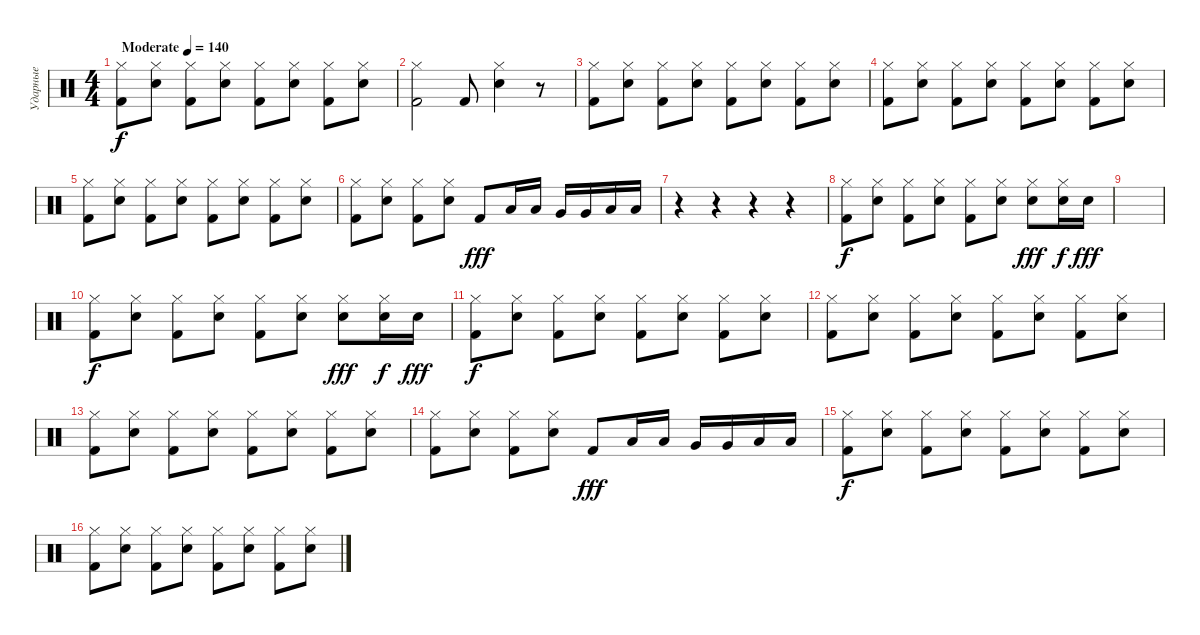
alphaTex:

\track ("Ударные" "Ударные") {instrument percussion}
\staff {score}
\articulation defaults
\ts (4 4)
\tempo (140 "Moderate")
\clef neutral
\ks c
("Hi-Hat (closed)" "Kick (hit) 2").8{dy f} ("Hi-Hat (closed)" "Electric Snare (hit)").8 ("Hi-Hat (closed)" "Kick (hit) 2").8 ("Hi-Hat (closed)" "Electric Snare (hit)").8 ("Hi-Hat (closed)" "Kick (hit) 2").8 ("Hi-Hat (closed)" "Electric Snare (hit)").8 ("Hi-Hat (closed)" "Kick (hit) 2").8 ("Hi-Hat (closed)" "Electric Snare (hit)").8 |
("Hi-Hat (closed)" "Kick (hit) 2").2 "Kick (hit) 2".8 ("Hi-Hat (closed)" "Electric Snare (hit)").4 r.8 |
("Hi-Hat (closed)" "Kick (hit) 2").8 ("Hi-Hat (closed)" "Electric Snare (hit)").8 ("Hi-Hat (closed)" "Kick (hit) 2").8 ("Hi-Hat (closed)" "Electric Snare (hit)").8 ("Hi-Hat (closed)" "Kick (hit) 2").8 ("Hi-Hat (closed)" "Electric Snare (hit)").8 ("Hi-Hat (closed)" "Kick (hit) 2").8 ("Hi-Hat (closed)" "Electric Snare (hit)").8 |
("Hi-Hat (closed)" "Kick (hit) 2").8 ("Hi-Hat (closed)" "Electric Snare (hit)").8 ("Hi-Hat (closed)" "Kick (hit) 2").8 ("Hi-Hat (closed)" "Electric Snare (hit)").8 ("Hi-Hat (closed)" "Kick (hit) 2").8 ("Hi-Hat (closed)" "Electric Snare (hit)").8 ("Hi-Hat (closed)" "Kick (hit) 2").8 ("Hi-Hat (closed)" "Electric Snare (hit)").8 |
("Hi-Hat (closed)" "Kick (hit) 2").8 ("Hi-Hat (closed)" "Electric Snare (hit)").8 ("Hi-Hat (closed)" "Kick (hit) 2").8 ("Hi-Hat (closed)" "Electric Snare (hit)").8 ("Hi-Hat (closed)" "Kick (hit) 2").8 ("Hi-Hat (closed)" "Electric Snare (hit)").8 ("Hi-Hat (closed)" "Kick (hit) 2").8 ("Hi-Hat (closed)" "Electric Snare (hit)").8 |
("Hi-Hat (closed)" "Kick (hit) 2").8 ("Hi-Hat (closed)" "Electric Snare (hit)").8 ("Hi-Hat (closed)" "Kick (hit) 2").8 ("Hi-Hat (closed)" "Electric Snare (hit)").8 "Kick (hit) 2".8{dy fff} "Low Tom (hit)".16 "Low Tom (hit)".16 "Very Low Tom (hit)".16 "Very Low Tom (hit)".16 "Low Floor Tom (hit)".16 "Low Floor Tom (hit)".16 |
r.4 r.4 r.4 r.4 |
("Hi-Hat (closed)" "Kick (hit) 2").8{dy f} ("Hi-Hat (closed)" "Electric Snare (hit)").8 ("Hi-Hat (closed)" "Kick (hit) 2").8 ("Hi-Hat (closed)" "Electric Snare (hit)").8 ("Hi-Hat (closed)" "Kick (hit) 2").8 ("Hi-Hat (closed)" "Electric Snare (hit)").8 ("Hi-Hat (closed)" "Electric Snare (hit)").8{dy fff} ("Hi-Hat (closed)" "Electric Snare (hit)").16{dy f} "Electric Snare (hit)".16{dy fff} |
|
("Hi-Hat (closed)" "Kick (hit) 2").8{dy f} ("Hi-Hat (closed)" "Electric Snare (hit)").8 ("Hi-Hat (closed)" "Kick (hit) 2").8 ("Hi-Hat (closed)" "Electric Snare (hit)").8 ("Hi-Hat (closed)" "Kick (hit) 2").8 ("Hi-Hat (closed)" "Electric Snare (hit)").8 ("Hi-Hat (closed)" "Electric Snare (hit)").8{dy fff} ("Hi-Hat (closed)" "Electric Snare (hit)").16{dy f} "Electric Snare (hit)".16{dy fff} |
("Hi-Hat (closed)" "Kick (hit) 2").8{dy f} ("Hi-Hat (closed)" "Electric Snare (hit)").8 ("Hi-Hat (closed)" "Kick (hit) 2").8 ("Hi-Hat (closed)" "Electric Snare (hit)").8 ("Hi-Hat (closed)" "Kick (hit) 2").8 ("Hi-Hat (closed)" "Electric Snare (hit)").8 ("Hi-Hat (closed)" "Kick (hit) 2").8 ("Hi-Hat (closed)" "Electric Snare (hit)").8 |
("Hi-Hat (closed)" "Kick (hit) 2").8 ("Hi-Hat (closed)" "Electric Snare (hit)").8 ("Hi-Hat (closed)" "Kick (hit) 2").8 ("Hi-Hat (closed)" "Electric Snare (hit)").8 ("Hi-Hat (closed)" "Kick (hit) 2").8 ("Hi-Hat (closed)" "Electric Snare (hit)").8 ("Hi-Hat (closed)" "Kick (hit) 2").8 ("Hi-Hat (closed)" "Electric Snare (hit)").8 |
("Hi-Hat (closed)" "Kick (hit) 2").8 ("Hi-Hat (closed)" "Electric Snare (hit)").8 ("Hi-Hat (closed)" "Kick (hit) 2").8 ("Hi-Hat (closed)" "Electric Snare (hit)").8 ("Hi-Hat (closed)" "Kick (hit) 2").8 ("Hi-Hat (closed)" "Electric Snare (hit)").8 ("Hi-Hat (closed)" "Kick (hit) 2").8 ("Hi-Hat (closed)" "Electric Snare (hit)").8 |
("Hi-Hat (closed)" "Kick (hit) 2").8 ("Hi-Hat (closed)" "Electric Snare (hit)").8 ("Hi-Hat (closed)" "Kick (hit) 2").8 ("Hi-Hat (closed)" "Electric Snare (hit)").8 "Kick (hit) 2".8{dy fff} "Low Tom (hit)".16 "Low Tom (hit)".16 "Very Low Tom (hit)".16 "Very Low Tom (hit)".16 "Low Floor Tom (hit)".16 "Low Floor Tom (hit)".16 |
("Hi-Hat (closed)" "Kick (hit) 2").8{dy f} ("Hi-Hat (closed)" "Electric Snare (hit)").8 ("Hi-Hat (closed)" "Kick (hit) 2").8 ("Hi-Hat (closed)" "Electric Snare (hit)").8 ("Hi-Hat (closed)" "Kick (hit) 2").8 ("Hi-Hat (closed)" "Electric Snare (hit)").8 ("Hi-Hat (closed)" "Kick (hit) 2").8 ("Hi-Hat (closed)" "Electric Snare (hit)").8 |
("Hi-Hat (closed)" "Kick (hit) 2").8 ("Hi-Hat (closed)" "Electric Snare (hit)").8 ("Hi-Hat (closed)" "Kick (hit) 2").8 ("Hi-Hat (closed)" "Electric Snare (hit)").8 ("Hi-Hat (closed)" "Kick (hit) 2").8 ("Hi-Hat (closed)" "Electric Snare (hit)").8 ("Hi-Hat (closed)" "Kick (hit) 2").8 ("Hi-Hat (closed)" "Electric Snare (hit)").8
